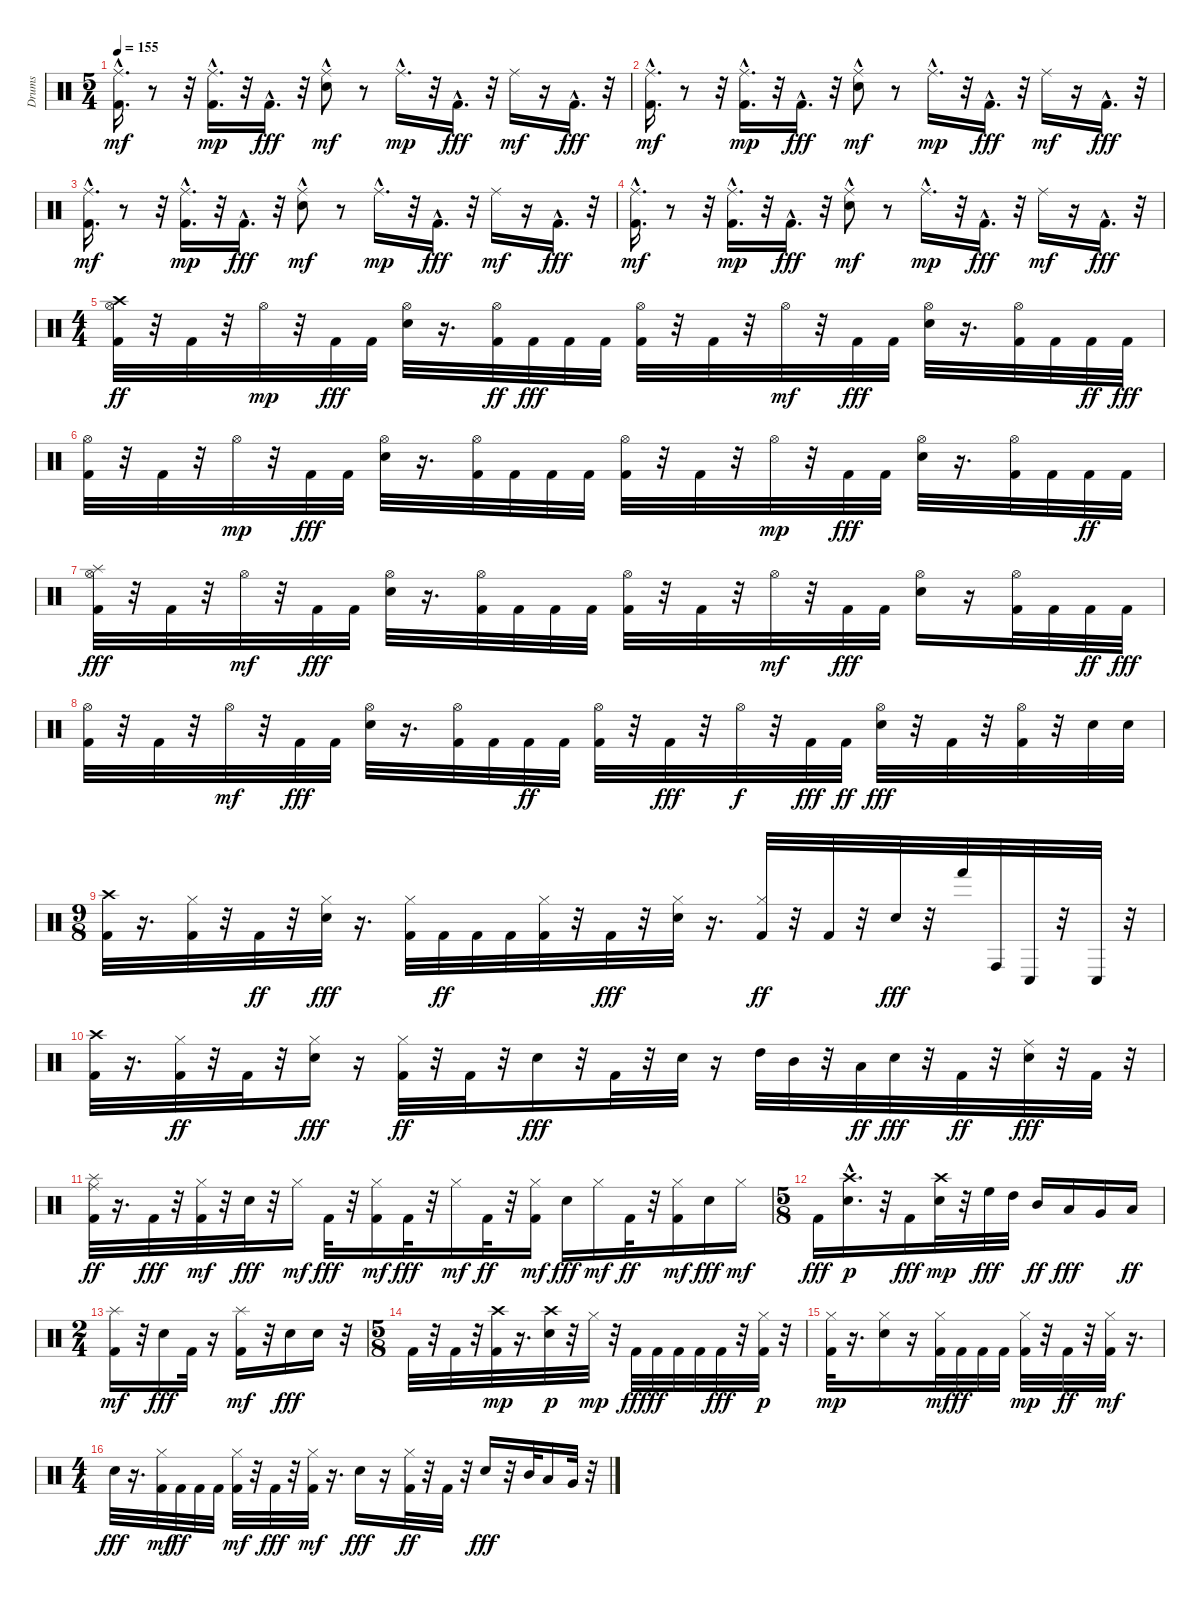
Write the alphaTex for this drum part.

\track ("Drums" "Drums") {instrument percussion}
\staff {score}
\articulation defaults
\ts (5 4)
\tempo 155
\clef neutral
\ks c
("Kick (hit) 2"{hac} "Ride (middle)"{hac}).16{d dy mf} r.8 r.32 ("Kick (hit) 2" "Ride (middle)"{hac}).16{d dy mp} r.32 "Kick (hit) 2"{hac}.16{d dy fff} r.32 ("Electric Snare (hit)" "Ride (middle)"{hac}).8{dy mf} r.8 "Ride (middle)"{hac}.16{d dy mp} r.32 "Kick (hit) 2"{hac}.16{d dy fff} r.32 "Ride (middle)".16{dy mf} r.16 "Kick (hit) 2"{hac}.16{d dy fff} r.32 |
("Kick (hit) 2"{hac} "Ride (middle)"{hac}).16{d dy mf} r.8 r.32 ("Kick (hit) 2" "Ride (middle)"{hac}).16{d dy mp} r.32 "Kick (hit) 2"{hac}.16{d dy fff} r.32 ("Electric Snare (hit)" "Ride (middle)"{hac}).8{dy mf} r.8 "Ride (middle)"{hac}.16{d dy mp} r.32 "Kick (hit) 2"{hac}.16{d dy fff} r.32 "Ride (middle)".16{dy mf} r.16 "Kick (hit) 2"{hac}.16{d dy fff} r.32 |
("Kick (hit) 2"{hac} "Ride (middle)"{hac}).16{d dy mf} r.8 r.32 ("Kick (hit) 2" "Ride (middle)"{hac}).16{d dy mp} r.32 "Kick (hit) 2"{hac}.16{d dy fff} r.32 ("Electric Snare (hit)" "Ride (middle)"{hac}).8{dy mf} r.8 "Ride (middle)"{hac}.16{d dy mp} r.32 "Kick (hit) 2"{hac}.16{d dy fff} r.32 "Ride (middle)".16{dy mf} r.16 "Kick (hit) 2"{hac}.16{d dy fff} r.32 |
("Kick (hit) 2"{hac} "Ride (middle)"{hac}).16{d dy mf} r.8 r.32 ("Kick (hit) 2" "Ride (middle)"{hac}).16{d dy mp} r.32 "Kick (hit) 2"{hac}.16{d dy fff} r.32 ("Electric Snare (hit)" "Ride (middle)"{hac}).8{dy mf} r.8 "Ride (middle)"{hac}.16{d dy mp} r.32 "Kick (hit) 2"{hac}.16{d dy fff} r.32 "Ride (middle)".16{dy mf} r.16 "Kick (hit) 2"{hac}.16{d dy fff} r.32 |
\ts (4 4)
("Crash high (hit)" "Hi-Hat (open)" "Kick (hit) 2").32{dy ff} r.32 "Kick (hit) 2".32 r.32 "Hi-Hat (open)".32{dy mp} r.32 "Kick (hit) 2".32{dy fff} "Kick (hit) 2".32 ("Hi-Hat (open)" "Electric Snare (hit)").32 r.16{d} ("Hi-Hat (open)" "Kick (hit) 2").32{dy ff} "Kick (hit) 2".32{dy fff} "Kick (hit) 2".32 "Kick (hit) 2".32 ("Hi-Hat (open)" "Kick (hit) 2").32 r.32 "Kick (hit) 2".32 r.32 "Hi-Hat (open)".32{dy mf} r.32 "Kick (hit) 2".32{dy fff} "Kick (hit) 2".32 ("Hi-Hat (open)" "Electric Snare (hit)").32 r.16{d} ("Hi-Hat (open)" "Kick (hit) 2").32 "Kick (hit) 2".32 "Kick (hit) 2".32{dy ff} "Kick (hit) 2".32{dy fff} |
("Hi-Hat (open)" "Kick (hit) 2").32 r.32 "Kick (hit) 2".32 r.32 "Hi-Hat (open)".32{dy mp} r.32 "Kick (hit) 2".32{dy fff} "Kick (hit) 2".32 ("Hi-Hat (open)" "Electric Snare (hit)").32 r.16{d} ("Hi-Hat (open)" "Kick (hit) 2").32 "Kick (hit) 2".32 "Kick (hit) 2".32 "Kick (hit) 2".32 ("Hi-Hat (open)" "Kick (hit) 2").32 r.32 "Kick (hit) 2".32 r.32 "Hi-Hat (open)".32{dy mp} r.32 "Kick (hit) 2".32{dy fff} "Kick (hit) 2".32 ("Hi-Hat (open)" "Electric Snare (hit)").32 r.16{d} ("Hi-Hat (open)" "Kick (hit) 2").32 "Kick (hit) 2".32 "Kick (hit) 2".32{dy ff} "Kick (hit) 2".32 |
("Splash (hit)" "Hi-Hat (open)" "Kick (hit) 2").32{dy fff} r.32 "Kick (hit) 2".32 r.32 "Hi-Hat (open)".32{dy mf} r.32 "Kick (hit) 2".32{dy fff} "Kick (hit) 2".32 ("Hi-Hat (open)" "Electric Snare (hit)").32 r.16{d} ("Hi-Hat (open)" "Kick (hit) 2").32 "Kick (hit) 2".32 "Kick (hit) 2".32 "Kick (hit) 2".32 ("Hi-Hat (open)" "Kick (hit) 2").32 r.32 "Kick (hit) 2".32 r.32 "Hi-Hat (open)".32{dy mf} r.32 "Kick (hit) 2".32{dy fff} "Kick (hit) 2".32 ("Hi-Hat (open)" "Electric Snare (hit)").16 r.16 ("Hi-Hat (open)" "Kick (hit) 2").32 "Kick (hit) 2".32 "Kick (hit) 2".32{dy ff} "Kick (hit) 2".32{dy fff} |
("Hi-Hat (open)" "Kick (hit) 2").32 r.32 "Kick (hit) 2".32 r.32 "Hi-Hat (open)".32{dy mf} r.32 "Kick (hit) 2".32{dy fff} "Kick (hit) 2".32 ("Hi-Hat (open)" "Electric Snare (hit)").32 r.16{d} ("Hi-Hat (open)" "Kick (hit) 2").32 "Kick (hit) 2".32 "Kick (hit) 2".32{dy ff} "Kick (hit) 2".32 ("Hi-Hat (open)" "Kick (hit) 2").32 r.32 "Kick (hit) 2".32{dy fff} r.32 "Hi-Hat (open)".32{dy f} r.32 "Kick (hit) 2".32{dy fff} "Kick (hit) 2".32{dy ff} ("Hi-Hat (open)" "Electric Snare (hit)").32{dy fff} r.32 "Kick (hit) 2".32 r.32 ("Hi-Hat (open)" "Kick (hit) 2").32 r.32 "Electric Snare (hit)".32 "Electric Snare (hit)".32 |
\ts (9 8)
("Crash high (hit)" "Kick (hit) 2").32 r.16{d} ("Hi-Hat (closed)" "Kick (hit) 2").32 r.32 "Kick (hit) 2".32{dy ff} r.32 ("Hi-Hat (closed)" "Electric Snare (hit)").32{dy fff} r.16{d} ("Hi-Hat (closed)" "Kick (hit) 2").32 "Kick (hit) 2".32{dy ff} "Kick (hit) 2".32 "Kick (hit) 2".32 ("Hi-Hat (closed)" "Kick (hit) 2").32 r.32 "Kick (hit) 2".32{dy fff} r.32 ("Hi-Hat (closed)" "Electric Snare (hit)").32 r.16{d} ("Hi-Hat (closed)" "Kick (hit) 2").32{dy ff} r.32 "Kick (hit) 2".32 r.32 "Electric Snare (hit)".32{dy fff} r.32 "Hand (hit)".32 "Conga high (hit)".32 "Conga low (hit)".32 r.32 "Conga low (hit)".32 r.32 |
("Crash high (hit)" "Kick (hit) 2").32 r.16{d} ("Hi-Hat (closed)" "Kick (hit) 2").32{dy ff} r.32 "Kick (hit) 2".32 r.32 ("Hi-Hat (closed)" "Electric Snare (hit)").16{dy fff} r.16 ("Hi-Hat (closed)" "Kick (hit) 2").32{dy ff} r.32 "Kick (hit) 2".32 r.32 "Electric Snare (hit)".16{dy fff} r.32 "Kick (hit) 2".32 r.32 "Electric Snare (hit)".32 r.16 "High Tom (hit)".32 "Mid Tom (hit)".32 r.32 "Low Tom (hit)".32{dy ff} "Electric Snare (hit)".32{dy fff} r.32 "Kick (hit) 2".32{dy ff} r.32 ("Ride (middle)" "Electric Snare (hit)").32{dy fff} r.32 "Kick (hit) 2".32 r.32 |
("Ride (middle)" "Kick (hit) 2" "Splash (hit)").32{dy ff} r.16{d} "Kick (hit) 2".32{dy fff} r.32 ("Kick (hit) 2" "Hi-Hat (closed)").32{dy mf} r.32 "Electric Snare (hit)".32{dy fff} r.32 "Hi-Hat (closed)".16{dy mf} "Kick (hit) 2".32{dy fff} r.32 ("Kick (hit) 2" "Hi-Hat (closed)").16{dy mf} "Kick (hit) 2".32{dy fff} r.32 "Hi-Hat (closed)".16{dy mf} "Kick (hit) 2".32{dy ff} r.32 ("Kick (hit) 2" "Hi-Hat (closed)").16{dy mf} "Electric Snare (hit)".16{dy fff} "Hi-Hat (closed)".16{dy mf} "Kick (hit) 2".32{dy ff} r.32 ("Kick (hit) 2" "Hi-Hat (closed)").16{dy mf} "Electric Snare (hit)".16{dy fff} "Hi-Hat (closed)".16{dy mf} |
\ts (5 8)
"Kick (hit) 2".16{dy fff} ("Electric Snare (hit)"{hac} "Crash high (hit)").16{d dy p} r.32 "Kick (hit) 2".16{dy fff} ("Electric Snare (hit)" "Crash high (hit)").32{dy mp} r.32 "High Floor Tom (hit)".32{dy fff} "High Tom (hit)".32 "Mid Tom (hit)".16{dy ff} "Low Tom (hit)".16{dy fff} "Very Low Tom (hit)".16 "Low Tom (hit)".16{dy ff} |
\ts (2 4)
("Kick (hit) 2" "Splash (hit)").16{dy mf} r.32 "Electric Snare (hit)".16{dy fff} "Kick (hit) 2".32 r.16 ("Kick (hit) 2" "Splash (hit)").16{dy mf} r.32 "Electric Snare (hit)".16{dy fff} "Electric Snare (hit)".16 r.32 |
\ts (5 8)
"Kick (hit) 2".32 r.32 "Kick (hit) 2".32 r.32 ("Kick (hit) 2" "Crash high (hit)").32{dy mp} r.16{d} ("Electric Snare (hit)" "Crash high (hit)").32{dy p} r.32 "Hi-Hat (closed)".32{dy mp} r.32 "Kick (hit) 2".32{dy fff} "Kick (hit) 2".32{dy ff} "Kick (hit) 2".32 "Kick (hit) 2".32 "Kick (hit) 2".32{dy fff} r.32 ("Kick (hit) 2" "Hi-Hat (closed)").32{dy p} r.32 |
("Kick (hit) 2" "Hi-Hat (closed)").32{dy mp} r.16{d} ("Electric Snare (hit)" "Hi-Hat (closed)").16 r.16 ("Kick (hit) 2" "Hi-Hat (closed)").32{dy mf} "Kick (hit) 2".32{dy ff} "Kick (hit) 2".32 "Kick (hit) 2".32 ("Kick (hit) 2" "Hi-Hat (closed)").32{dy mp} r.32 "Kick (hit) 2".32{dy ff} r.32 ("Kick (hit) 2" "Hi-Hat (closed)").32{dy mf} r.16{d} |
\ts (4 4)
"Electric Snare (hit)".32{dy fff} r.16{d} ("Kick (hit) 2" "Hi-Hat (closed)").32{dy mf} "Kick (hit) 2".32{dy ff} "Kick (hit) 2".32 "Kick (hit) 2".32 ("Kick (hit) 2" "Hi-Hat (closed)").32{dy mf} r.32 "Kick (hit) 2".32{dy fff} r.32 ("Kick (hit) 2" "Hi-Hat (closed)").32{dy mf} r.16{d} "Electric Snare (hit)".16{dy fff} r.16 ("Kick (hit) 2" "Hi-Hat (closed)").32{dy ff} r.32 "Kick (hit) 2".32 r.32 "Electric Snare (hit)".16{dy fff} r.32 "Mid Tom (hit)".32 "Low Tom (hit)".16 "Very Low Tom (hit)".32 r.32
